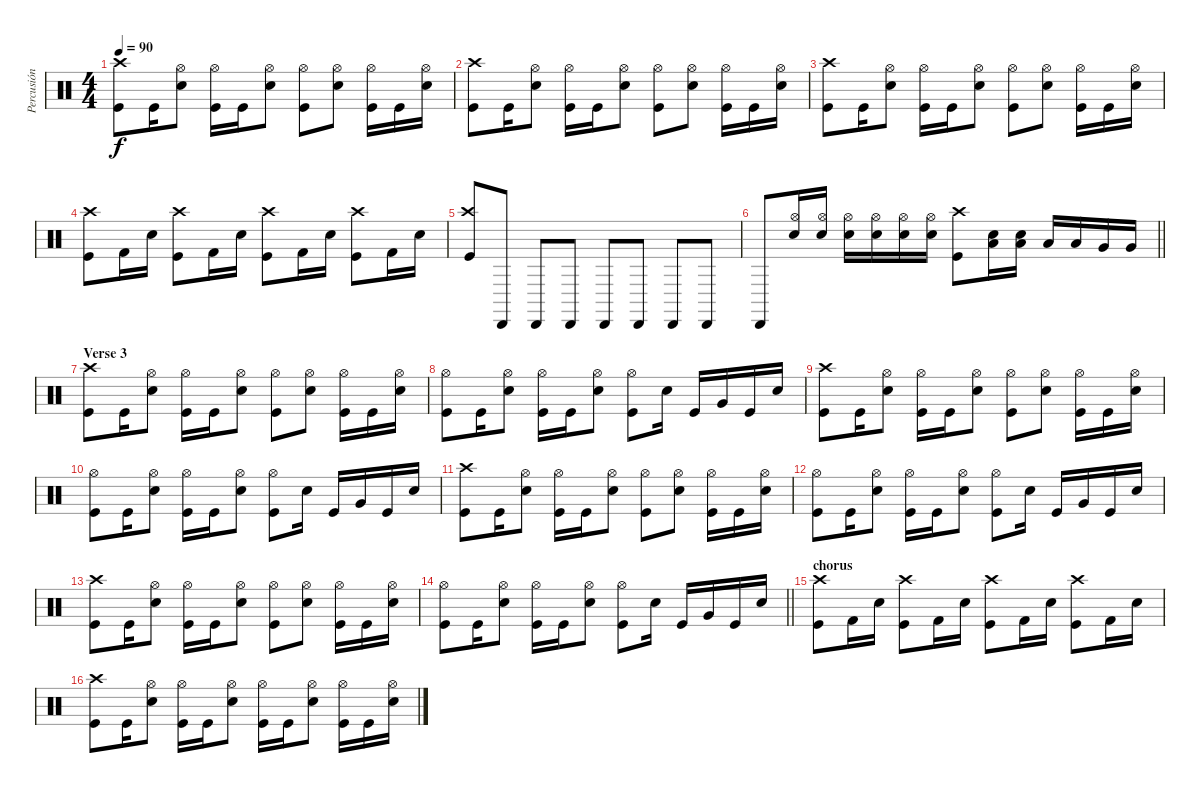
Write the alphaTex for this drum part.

\track ("Percusión" "Percusión") {instrument percussion}
\staff
\articulation defaults
\ts (4 4)
\tempo 90
\clef neutral
\ks c
("Kick (hit)" "Crash high (hit)").8{dy f} "Kick (hit)".16 ("Hi-Hat (open)" "Electric Snare (hit)").8 ("Kick (hit)" "Hi-Hat (open)").16 "Kick (hit)".16 ("Hi-Hat (open)" "Electric Snare (hit)").8 ("Kick (hit)" "Hi-Hat (open)").8 ("Hi-Hat (open)" "Electric Snare (hit)").8 ("Kick (hit)" "Hi-Hat (open)").16 "Kick (hit)".16 ("Hi-Hat (open)" "Electric Snare (hit)").16 |
("Kick (hit)" "Crash high (hit)").8 "Kick (hit)".16 ("Hi-Hat (open)" "Electric Snare (hit)").8 ("Kick (hit)" "Hi-Hat (open)").16 "Kick (hit)".16 ("Hi-Hat (open)" "Electric Snare (hit)").8 ("Kick (hit)" "Hi-Hat (open)").8 ("Hi-Hat (open)" "Electric Snare (hit)").8 ("Kick (hit)" "Hi-Hat (open)").16 "Kick (hit)".16 ("Hi-Hat (open)" "Electric Snare (hit)").16 |
("Kick (hit)" "Crash high (hit)").8 "Kick (hit)".16 ("Hi-Hat (open)" "Electric Snare (hit)").8 ("Kick (hit)" "Hi-Hat (open)").16 "Kick (hit)".16 ("Hi-Hat (open)" "Electric Snare (hit)").8 ("Kick (hit)" "Hi-Hat (open)").8 ("Hi-Hat (open)" "Electric Snare (hit)").8 ("Kick (hit)" "Hi-Hat (open)").16 "Kick (hit)".16 ("Hi-Hat (open)" "Electric Snare (hit)").16 |
("Kick (hit)" "Crash high (hit)").8 "Kick (hit) 2".16 "Electric Snare (hit)".16 ("Kick (hit)" "Crash high (hit)").8 "Kick (hit) 2".16 "Electric Snare (hit)".16 ("Kick (hit)" "Crash high (hit)").8 "Kick (hit) 2".16 "Electric Snare (hit)".16 ("Kick (hit)" "Crash high (hit)").8 "Kick (hit) 2".16 "Electric Snare (hit)".16 |
("Kick (hit)" "Crash high (hit)").8 "Cabasa (hit)".8 "Cabasa (hit)".8 "Cabasa (hit)".8 "Cabasa (hit)".8 "Cabasa (hit)".8 "Cabasa (hit)".8 "Cabasa (hit)".8 |
\barLineRight lightlight "Cabasa (hit)".8
("Hi-Hat (open)" "Electric Snare (hit)").16 ("Hi-Hat (open)" "Electric Snare (hit)").16 ("Hi-Hat (open)" "Electric Snare (hit)").16 ("Hi-Hat (open)" "Electric Snare (hit)").16 ("Hi-Hat (open)" "Electric Snare (hit)").16 ("Hi-Hat (open)" "Electric Snare (hit)").16 ("Kick (hit)" "Crash high (hit)").8 ("Electric Snare (hit)" "Low Floor Tom (hit)").16 ("Electric Snare (hit)" "Low Floor Tom (hit)").16 "Low Tom (hit)".16 "Low Tom (hit)".16 "Very Low Tom (hit)".16 "Very Low Tom (hit)".16 |
\section ("" "Verse 3")
("Kick (hit)" "Crash high (hit)").8 "Kick (hit)".16 ("Hi-Hat (open)" "Electric Snare (hit)").8 ("Kick (hit)" "Hi-Hat (open)").16 "Kick (hit)".16 ("Hi-Hat (open)" "Electric Snare (hit)").8 ("Kick (hit)" "Hi-Hat (open)").8 ("Hi-Hat (open)" "Electric Snare (hit)").8 ("Kick (hit)" "Hi-Hat (open)").16 "Kick (hit)".16 ("Hi-Hat (open)" "Electric Snare (hit)").16 |
("Kick (hit)" "Hi-Hat (open)").8 "Kick (hit)".16 ("Hi-Hat (open)" "Electric Snare (hit)").8 ("Kick (hit)" "Hi-Hat (open)").16 "Kick (hit)".16 ("Hi-Hat (open)" "Electric Snare (hit)").8 ("Kick (hit)" "Hi-Hat (open)").8 "Electric Snare (hit)".16 "Kick (hit)".16 "Very Low Tom (hit)".16 "Kick (hit)".16 "Electric Snare (hit)".16 |
("Kick (hit)" "Crash high (hit)").8 "Kick (hit)".16 ("Hi-Hat (open)" "Electric Snare (hit)").8 ("Kick (hit)" "Hi-Hat (open)").16 "Kick (hit)".16 ("Hi-Hat (open)" "Electric Snare (hit)").8 ("Kick (hit)" "Hi-Hat (open)").8 ("Hi-Hat (open)" "Electric Snare (hit)").8 ("Kick (hit)" "Hi-Hat (open)").16 "Kick (hit)".16 ("Hi-Hat (open)" "Electric Snare (hit)").16 |
("Kick (hit)" "Hi-Hat (open)").8 "Kick (hit)".16 ("Hi-Hat (open)" "Electric Snare (hit)").8 ("Kick (hit)" "Hi-Hat (open)").16 "Kick (hit)".16 ("Hi-Hat (open)" "Electric Snare (hit)").8 ("Kick (hit)" "Hi-Hat (open)").8 "Electric Snare (hit)".16 "Kick (hit)".16 "Very Low Tom (hit)".16 "Kick (hit)".16 "Electric Snare (hit)".16 |
("Kick (hit)" "Crash high (hit)").8 "Kick (hit)".16 ("Hi-Hat (open)" "Electric Snare (hit)").8 ("Kick (hit)" "Hi-Hat (open)").16 "Kick (hit)".16 ("Hi-Hat (open)" "Electric Snare (hit)").8 ("Kick (hit)" "Hi-Hat (open)").8 ("Hi-Hat (open)" "Electric Snare (hit)").8 ("Kick (hit)" "Hi-Hat (open)").16 "Kick (hit)".16 ("Hi-Hat (open)" "Electric Snare (hit)").16 |
("Kick (hit)" "Hi-Hat (open)").8 "Kick (hit)".16 ("Hi-Hat (open)" "Electric Snare (hit)").8 ("Kick (hit)" "Hi-Hat (open)").16 "Kick (hit)".16 ("Hi-Hat (open)" "Electric Snare (hit)").8 ("Kick (hit)" "Hi-Hat (open)").8 "Electric Snare (hit)".16 "Kick (hit)".16 "Very Low Tom (hit)".16 "Kick (hit)".16 "Electric Snare (hit)".16 |
("Kick (hit)" "Crash high (hit)").8 "Kick (hit)".16 ("Hi-Hat (open)" "Electric Snare (hit)").8 ("Kick (hit)" "Hi-Hat (open)").16 "Kick (hit)".16 ("Hi-Hat (open)" "Electric Snare (hit)").8 ("Kick (hit)" "Hi-Hat (open)").8 ("Hi-Hat (open)" "Electric Snare (hit)").8 ("Kick (hit)" "Hi-Hat (open)").16 "Kick (hit)".16 ("Hi-Hat (open)" "Electric Snare (hit)").16 |
\barLineRight lightlight
("Kick (hit)" "Hi-Hat (open)").8 "Kick (hit)".16 ("Hi-Hat (open)" "Electric Snare (hit)").8 ("Kick (hit)" "Hi-Hat (open)").16 "Kick (hit)".16 ("Hi-Hat (open)" "Electric Snare (hit)").8 ("Kick (hit)" "Hi-Hat (open)").8 "Electric Snare (hit)".16 "Kick (hit)".16 "Very Low Tom (hit)".16 "Kick (hit)".16 "Electric Snare (hit)".16 |
\section ("" "chorus")
("Kick (hit)" "Crash high (hit)").8 "Kick (hit) 2".16 "Electric Snare (hit)".16 ("Kick (hit)" "Crash high (hit)").8 "Kick (hit) 2".16 "Electric Snare (hit)".16 ("Kick (hit)" "Crash high (hit)").8 "Kick (hit) 2".16 "Electric Snare (hit)".16 ("Kick (hit)" "Crash high (hit)").8 "Kick (hit) 2".16 "Electric Snare (hit)".16 |
("Kick (hit)" "Crash high (hit)").8 "Kick (hit)".16 ("Hi-Hat (open)" "Electric Snare (hit)").8 ("Kick (hit)" "Hi-Hat (open)").16 "Kick (hit)".16 ("Hi-Hat (open)" "Electric Snare (hit)").8 ("Kick (hit)" "Hi-Hat (open)").16 "Kick (hit)".16 ("Hi-Hat (open)" "Electric Snare (hit)").8 ("Kick (hit)" "Hi-Hat (open)").16 "Kick (hit)".16 ("Hi-Hat (open)" "Electric Snare (hit)").16
